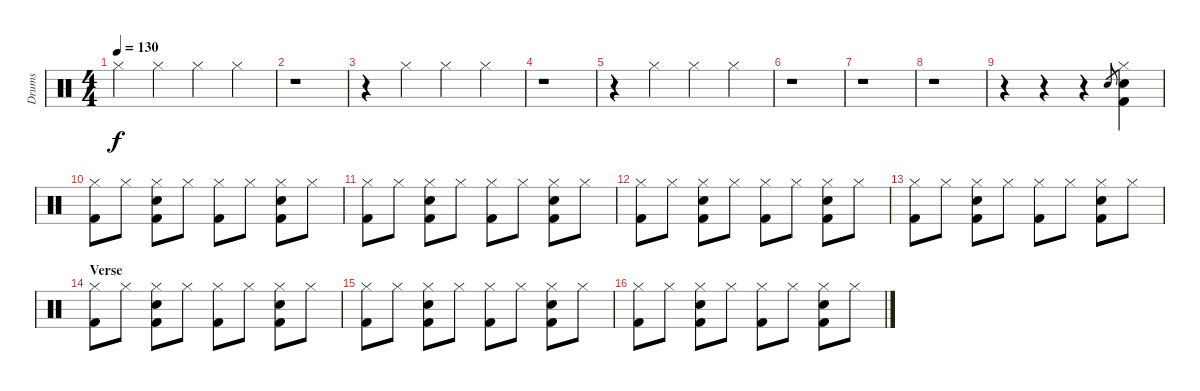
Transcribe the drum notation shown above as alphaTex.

\track ("Drums" "Drums") {instrument percussion}
\staff {score}
\articulation defaults
\ts (4 4)
\tempo 130
\clef neutral
\ks c "Hi-Hat (closed)".4{dy f} "Hi-Hat (closed)".4 "Hi-Hat (closed)".4 "Hi-Hat (closed)".4
|
r.1 |
r.4 "Hi-Hat (closed)".4 "Hi-Hat (closed)".4 "Hi-Hat (closed)".4 |
r.1 |
r.4 "Hi-Hat (closed)".4 "Hi-Hat (closed)".4 "Hi-Hat (closed)".4 |
r.1 |
r.1 |
r.1 |
r.4 r.4 r.4 "Snare (hit) 2".8{gr} ("Kick (hit) 2" "Snare (hit) 2" "Hi-Hat (closed)").4 |
("Hi-Hat (closed)" "Kick (hit) 2").8 "Hi-Hat (closed)".8 ("Hi-Hat (closed)" "Snare (hit) 2" "Kick (hit) 2").8 "Hi-Hat (closed)".8 ("Hi-Hat (closed)" "Kick (hit) 2").8 "Hi-Hat (closed)".8 ("Hi-Hat (closed)" "Snare (hit) 2" "Kick (hit) 2").8 "Hi-Hat (closed)".8 |
("Hi-Hat (closed)" "Kick (hit) 2").8 "Hi-Hat (closed)".8 ("Hi-Hat (closed)" "Snare (hit) 2" "Kick (hit) 2").8 "Hi-Hat (closed)".8 ("Hi-Hat (closed)" "Kick (hit) 2").8 "Hi-Hat (closed)".8 ("Hi-Hat (closed)" "Snare (hit) 2" "Kick (hit) 2").8 "Hi-Hat (closed)".8 |
("Hi-Hat (closed)" "Kick (hit) 2").8 "Hi-Hat (closed)".8 ("Hi-Hat (closed)" "Snare (hit) 2" "Kick (hit) 2").8 "Hi-Hat (closed)".8 ("Hi-Hat (closed)" "Kick (hit) 2").8 "Hi-Hat (closed)".8 ("Hi-Hat (closed)" "Snare (hit) 2" "Kick (hit) 2").8 "Hi-Hat (closed)".8 |
("Hi-Hat (closed)" "Kick (hit) 2").8 "Hi-Hat (closed)".8 ("Hi-Hat (closed)" "Snare (hit) 2" "Kick (hit) 2").8 "Hi-Hat (closed)".8 ("Hi-Hat (closed)" "Kick (hit) 2").8 "Hi-Hat (closed)".8 ("Hi-Hat (closed)" "Snare (hit) 2" "Kick (hit) 2").8 "Hi-Hat (closed)".8 |
\section ("" "Verse")
("Hi-Hat (closed)" "Kick (hit) 2").8 "Hi-Hat (closed)".8 ("Hi-Hat (closed)" "Snare (hit) 2" "Kick (hit) 2").8 "Hi-Hat (closed)".8 ("Hi-Hat (closed)" "Kick (hit) 2").8 "Hi-Hat (closed)".8 ("Hi-Hat (closed)" "Snare (hit) 2" "Kick (hit) 2").8 "Hi-Hat (closed)".8 |
("Hi-Hat (closed)" "Kick (hit) 2").8 "Hi-Hat (closed)".8 ("Hi-Hat (closed)" "Snare (hit) 2" "Kick (hit) 2").8 "Hi-Hat (closed)".8 ("Hi-Hat (closed)" "Kick (hit) 2").8 "Hi-Hat (closed)".8 ("Hi-Hat (closed)" "Snare (hit) 2" "Kick (hit) 2").8 "Hi-Hat (closed)".8 |
("Hi-Hat (closed)" "Kick (hit) 2").8 "Hi-Hat (closed)".8 ("Hi-Hat (closed)" "Snare (hit) 2" "Kick (hit) 2").8 "Hi-Hat (closed)".8 ("Hi-Hat (closed)" "Kick (hit) 2").8 "Hi-Hat (closed)".8 ("Hi-Hat (closed)" "Snare (hit) 2" "Kick (hit) 2").8 "Hi-Hat (closed)".8
